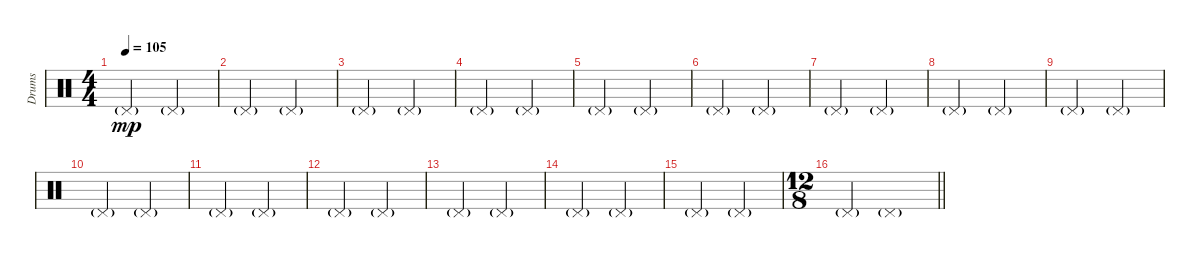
\track ("Drums" "Drums") {instrument percussion}
\staff {score}
\articulation defaults
\ts (4 4)
\tempo 105
\clef neutral
\ks c "Pedal Hi-Hat (hit)"{g}.2{dy mp} "Pedal Hi-Hat (hit)"{g}.2
|
"Pedal Hi-Hat (hit)"{g}.2 "Pedal Hi-Hat (hit)"{g}.2 |
"Pedal Hi-Hat (hit)"{g}.2 "Pedal Hi-Hat (hit)"{g}.2 |
"Pedal Hi-Hat (hit)"{g}.2 "Pedal Hi-Hat (hit)"{g}.2 |
"Pedal Hi-Hat (hit)"{g}.2 "Pedal Hi-Hat (hit)"{g}.2 |
"Pedal Hi-Hat (hit)"{g}.2 "Pedal Hi-Hat (hit)"{g}.2 |
"Pedal Hi-Hat (hit)"{g}.2 "Pedal Hi-Hat (hit)"{g}.2 |
"Pedal Hi-Hat (hit)"{g}.2 "Pedal Hi-Hat (hit)"{g}.2 |
"Pedal Hi-Hat (hit)"{g}.2 "Pedal Hi-Hat (hit)"{g}.2 |
"Pedal Hi-Hat (hit)"{g}.2 "Pedal Hi-Hat (hit)"{g}.2 |
"Pedal Hi-Hat (hit)"{g}.2 "Pedal Hi-Hat (hit)"{g}.2 |
"Pedal Hi-Hat (hit)"{g}.2 "Pedal Hi-Hat (hit)"{g}.2 |
"Pedal Hi-Hat (hit)"{g}.2 "Pedal Hi-Hat (hit)"{g}.2 |
"Pedal Hi-Hat (hit)"{g}.2 "Pedal Hi-Hat (hit)"{g}.2 |
"Pedal Hi-Hat (hit)"{g}.2 "Pedal Hi-Hat (hit)"{g}.2 |
\ts (12 8)
\barLineRight lightlight "Pedal Hi-Hat (hit)"{g}.2 "Pedal Hi-Hat (hit)"{g}.1
